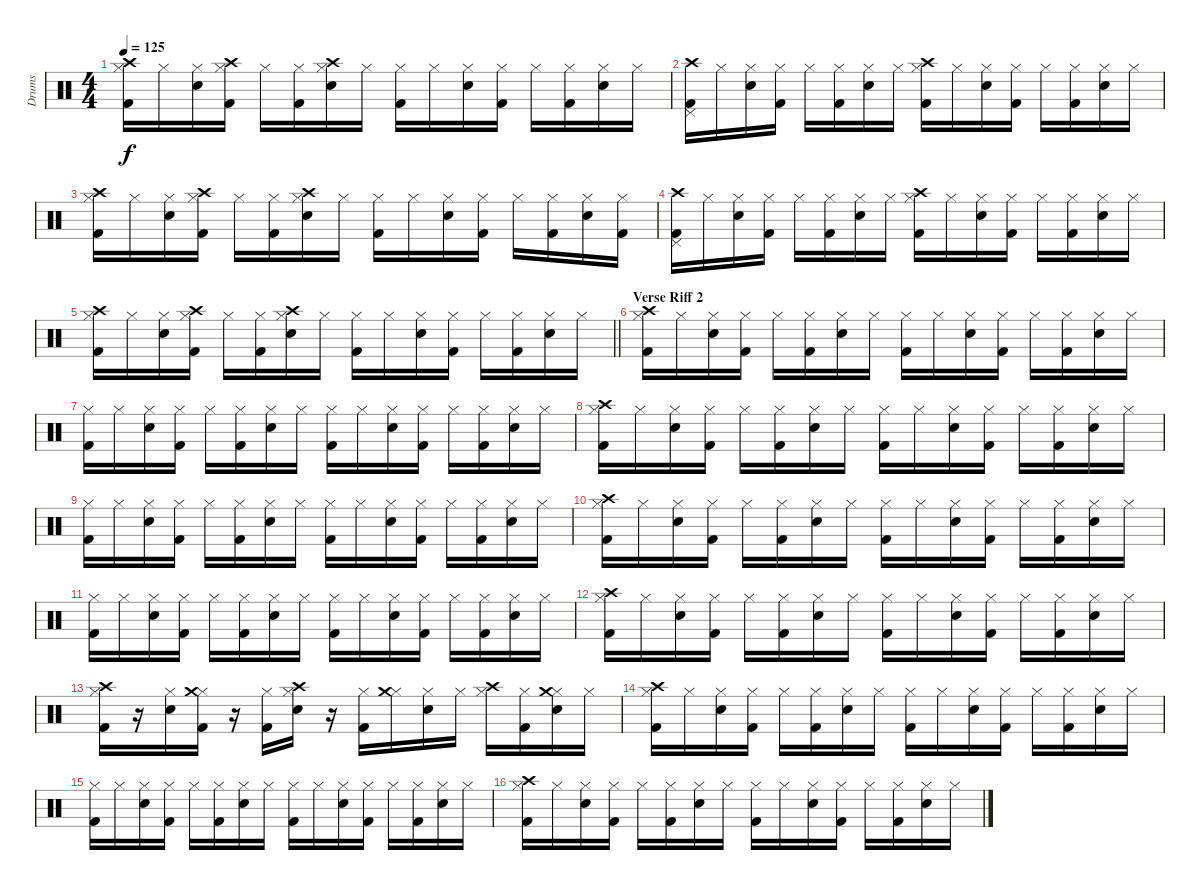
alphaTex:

\track ("Drums" "Drums") {instrument percussion}
\staff {score}
\articulation defaults
\ts (4 4)
\tempo 125
\clef neutral
\ks c
("Kick (hit) 2" "Hi-Hat (closed)" "Crash high (hit)").16{dy f} "Hi-Hat (closed)".16 ("Snare (hit) 2" "Hi-Hat (closed)").16 ("Kick (hit) 2" "Hi-Hat (closed)" "Crash high (hit)").16 "Hi-Hat (closed)".16 ("Kick (hit) 2" "Hi-Hat (closed)").16 ("Snare (hit) 2" "Hi-Hat (closed)" "Crash high (hit)").16 "Hi-Hat (closed)".16 ("Kick (hit) 2" "Hi-Hat (closed)").16 "Hi-Hat (closed)".16 ("Snare (hit) 2" "Hi-Hat (closed)").16 ("Kick (hit) 2" "Hi-Hat (closed)").16 "Hi-Hat (closed)".16 ("Kick (hit) 2" "Hi-Hat (closed)").16 ("Snare (hit) 2" "Hi-Hat (closed)").16 "Hi-Hat (closed)".16 |
("Kick (hit) 2" "Pedal Hi-Hat (hit)" "Crash high (hit)").16 "Hi-Hat (closed)".16 ("Snare (hit) 2" "Hi-Hat (closed)").16 ("Kick (hit) 2" "Hi-Hat (closed)").16 "Hi-Hat (closed)".16 ("Kick (hit) 2" "Hi-Hat (closed)").16 ("Snare (hit) 2" "Hi-Hat (closed)").16 "Hi-Hat (closed)".16 ("Kick (hit) 2" "Hi-Hat (closed)" "Crash high (hit)").16 "Hi-Hat (closed)".16 ("Snare (hit) 2" "Hi-Hat (closed)").16 ("Kick (hit) 2" "Hi-Hat (closed)").16 "Hi-Hat (closed)".16 ("Kick (hit) 2" "Hi-Hat (closed)").16 ("Snare (hit) 2" "Hi-Hat (closed)").16 "Hi-Hat (closed)".16 |
("Kick (hit) 2" "Hi-Hat (closed)" "Crash high (hit)").16 "Hi-Hat (closed)".16 ("Snare (hit) 2" "Hi-Hat (closed)").16 ("Kick (hit) 2" "Hi-Hat (closed)" "Crash high (hit)").16 "Hi-Hat (closed)".16 ("Kick (hit) 2" "Hi-Hat (closed)").16 ("Snare (hit) 2" "Hi-Hat (closed)" "Crash high (hit)").16 "Hi-Hat (closed)".16 ("Kick (hit) 2" "Hi-Hat (closed)").16 "Hi-Hat (closed)".16 ("Snare (hit) 2" "Hi-Hat (closed)").16 ("Kick (hit) 2" "Hi-Hat (closed)").16 "Hi-Hat (closed)".16 ("Kick (hit) 2" "Hi-Hat (closed)").16 ("Snare (hit) 2" "Hi-Hat (closed)").16 ("Kick (hit) 2" "Hi-Hat (closed)").16 |
("Kick (hit) 2" "Pedal Hi-Hat (hit)" "Crash high (hit)").16 "Hi-Hat (closed)".16 ("Snare (hit) 2" "Hi-Hat (closed)").16 ("Kick (hit) 2" "Hi-Hat (closed)").16 "Hi-Hat (closed)".16 ("Kick (hit) 2" "Hi-Hat (closed)").16 ("Snare (hit) 2" "Hi-Hat (closed)").16 "Hi-Hat (closed)".16 ("Kick (hit) 2" "Hi-Hat (closed)" "Crash high (hit)").16 "Hi-Hat (closed)".16 ("Snare (hit) 2" "Hi-Hat (closed)").16 ("Kick (hit) 2" "Hi-Hat (closed)").16 "Hi-Hat (closed)".16 ("Kick (hit) 2" "Hi-Hat (closed)").16 ("Snare (hit) 2" "Hi-Hat (closed)").16 "Hi-Hat (closed)".16 |
\barLineRight lightlight
("Kick (hit) 2" "Hi-Hat (closed)" "Crash high (hit)").16 "Hi-Hat (closed)".16 ("Snare (hit) 2" "Hi-Hat (closed)").16 ("Kick (hit) 2" "Hi-Hat (closed)" "Crash high (hit)").16 "Hi-Hat (closed)".16 ("Kick (hit) 2" "Hi-Hat (closed)").16 ("Snare (hit) 2" "Hi-Hat (closed)" "Crash high (hit)").16 "Hi-Hat (closed)".16 ("Kick (hit) 2" "Hi-Hat (closed)").16 "Hi-Hat (closed)".16 ("Snare (hit) 2" "Hi-Hat (closed)").16 ("Kick (hit) 2" "Hi-Hat (closed)").16 "Hi-Hat (closed)".16 ("Kick (hit) 2" "Hi-Hat (closed)").16 ("Snare (hit) 2" "Hi-Hat (closed)").16 "Hi-Hat (closed)".16 |
\section ("" "Verse Riff 2")
("Kick (hit) 2" "Hi-Hat (closed)" "Crash high (hit)").16 "Hi-Hat (closed)".16 ("Snare (hit) 2" "Hi-Hat (closed)").16 ("Kick (hit) 2" "Hi-Hat (closed)").16 "Hi-Hat (closed)".16 ("Kick (hit) 2" "Hi-Hat (closed)").16 ("Snare (hit) 2" "Hi-Hat (closed)").16 "Hi-Hat (closed)".16 ("Kick (hit) 2" "Hi-Hat (closed)").16 "Hi-Hat (closed)".16 ("Snare (hit) 2" "Hi-Hat (closed)").16 ("Kick (hit) 2" "Hi-Hat (closed)").16 "Hi-Hat (closed)".16 ("Kick (hit) 2" "Hi-Hat (closed)").16 ("Snare (hit) 2" "Hi-Hat (closed)").16 "Hi-Hat (closed)".16 |
("Kick (hit) 2" "Hi-Hat (closed)").16 "Hi-Hat (closed)".16 ("Snare (hit) 2" "Hi-Hat (closed)").16 ("Kick (hit) 2" "Hi-Hat (closed)").16 "Hi-Hat (closed)".16 ("Kick (hit) 2" "Hi-Hat (closed)").16 ("Snare (hit) 2" "Hi-Hat (closed)").16 "Hi-Hat (closed)".16 ("Kick (hit) 2" "Hi-Hat (closed)").16 "Hi-Hat (closed)".16 ("Snare (hit) 2" "Hi-Hat (closed)").16 ("Kick (hit) 2" "Hi-Hat (closed)").16 "Hi-Hat (closed)".16 ("Kick (hit) 2" "Hi-Hat (closed)").16 ("Snare (hit) 2" "Hi-Hat (closed)").16 "Hi-Hat (closed)".16 |
("Kick (hit) 2" "Hi-Hat (closed)" "Crash high (hit)").16 "Hi-Hat (closed)".16 ("Snare (hit) 2" "Hi-Hat (closed)").16 ("Kick (hit) 2" "Hi-Hat (closed)").16 "Hi-Hat (closed)".16 ("Kick (hit) 2" "Hi-Hat (closed)").16 ("Snare (hit) 2" "Hi-Hat (closed)").16 "Hi-Hat (closed)".16 ("Kick (hit) 2" "Hi-Hat (closed)").16 "Hi-Hat (closed)".16 ("Snare (hit) 2" "Hi-Hat (closed)").16 ("Kick (hit) 2" "Hi-Hat (closed)").16 "Hi-Hat (closed)".16 ("Kick (hit) 2" "Hi-Hat (closed)").16 ("Snare (hit) 2" "Hi-Hat (closed)").16 "Hi-Hat (closed)".16 |
("Kick (hit) 2" "Hi-Hat (closed)").16 "Hi-Hat (closed)".16 ("Snare (hit) 2" "Hi-Hat (closed)").16 ("Kick (hit) 2" "Hi-Hat (closed)").16 "Hi-Hat (closed)".16 ("Kick (hit) 2" "Hi-Hat (closed)").16 ("Snare (hit) 2" "Hi-Hat (closed)").16 "Hi-Hat (closed)".16 ("Kick (hit) 2" "Hi-Hat (closed)").16 "Hi-Hat (closed)".16 ("Snare (hit) 2" "Hi-Hat (closed)").16 ("Kick (hit) 2" "Hi-Hat (closed)").16 "Hi-Hat (closed)".16 ("Kick (hit) 2" "Hi-Hat (closed)").16 ("Snare (hit) 2" "Hi-Hat (closed)").16 "Hi-Hat (closed)".16 |
("Kick (hit) 2" "Hi-Hat (closed)" "Crash high (hit)").16 "Hi-Hat (closed)".16 ("Snare (hit) 2" "Hi-Hat (closed)").16 ("Kick (hit) 2" "Hi-Hat (closed)").16 "Hi-Hat (closed)".16 ("Kick (hit) 2" "Hi-Hat (closed)").16 ("Snare (hit) 2" "Hi-Hat (closed)").16 "Hi-Hat (closed)".16 ("Kick (hit) 2" "Hi-Hat (closed)").16 "Hi-Hat (closed)".16 ("Snare (hit) 2" "Hi-Hat (closed)").16 ("Kick (hit) 2" "Hi-Hat (closed)").16 "Hi-Hat (closed)".16 ("Kick (hit) 2" "Hi-Hat (closed)").16 ("Snare (hit) 2" "Hi-Hat (closed)").16 "Hi-Hat (closed)".16 |
("Kick (hit) 2" "Hi-Hat (closed)").16 "Hi-Hat (closed)".16 ("Snare (hit) 2" "Hi-Hat (closed)").16 ("Kick (hit) 2" "Hi-Hat (closed)").16 "Hi-Hat (closed)".16 ("Kick (hit) 2" "Hi-Hat (closed)").16 ("Snare (hit) 2" "Hi-Hat (closed)").16 "Hi-Hat (closed)".16 ("Kick (hit) 2" "Hi-Hat (closed)").16 "Hi-Hat (closed)".16 ("Snare (hit) 2" "Hi-Hat (closed)").16 ("Kick (hit) 2" "Hi-Hat (closed)").16 "Hi-Hat (closed)".16 ("Kick (hit) 2" "Hi-Hat (closed)").16 ("Snare (hit) 2" "Hi-Hat (closed)").16 "Hi-Hat (closed)".16 |
("Kick (hit) 2" "Hi-Hat (closed)" "Crash high (hit)").16 "Hi-Hat (closed)".16 ("Snare (hit) 2" "Hi-Hat (closed)").16 ("Kick (hit) 2" "Hi-Hat (closed)").16 "Hi-Hat (closed)".16 ("Kick (hit) 2" "Hi-Hat (closed)").16 ("Snare (hit) 2" "Hi-Hat (closed)").16 "Hi-Hat (closed)".16 ("Kick (hit) 2" "Hi-Hat (closed)").16 "Hi-Hat (closed)".16 ("Snare (hit) 2" "Hi-Hat (closed)").16 ("Kick (hit) 2" "Hi-Hat (closed)").16 "Hi-Hat (closed)".16 ("Kick (hit) 2" "Hi-Hat (closed)").16 ("Snare (hit) 2" "Hi-Hat (closed)").16 "Hi-Hat (closed)".16 |
("Kick (hit) 2" "Hi-Hat (closed)" "Crash high (hit)").16 r.16 ("Snare (hit) 2" "Hi-Hat (closed)").16 ("Kick (hit) 2" "Hi-Hat (closed)" "Crash medium (hit)").16 r.16 ("Kick (hit) 2" "Hi-Hat (closed)").16 ("Snare (hit) 2" "Hi-Hat (closed)" "Crash high (hit)").16 r.16 ("Kick (hit) 2" "Hi-Hat (closed)").16 ("Hi-Hat (closed)" "Crash medium (hit)").16 ("Snare (hit) 2" "Hi-Hat (closed)").16 "Hi-Hat (closed)".16 ("Hi-Hat (closed)" "Crash high (hit)").16 ("Kick (hit) 2" "Hi-Hat (closed)").16 ("Snare (hit) 2" "Hi-Hat (closed)" "Crash medium (hit)").16 "Hi-Hat (closed)".16 |
("Kick (hit) 2" "Hi-Hat (closed)" "Crash high (hit)").16 "Hi-Hat (closed)".16 ("Snare (hit) 2" "Hi-Hat (closed)").16 ("Kick (hit) 2" "Hi-Hat (closed)").16 "Hi-Hat (closed)".16 ("Kick (hit) 2" "Hi-Hat (closed)").16 ("Snare (hit) 2" "Hi-Hat (closed)").16 "Hi-Hat (closed)".16 ("Kick (hit) 2" "Hi-Hat (closed)").16 "Hi-Hat (closed)".16 ("Snare (hit) 2" "Hi-Hat (closed)").16 ("Kick (hit) 2" "Hi-Hat (closed)").16 "Hi-Hat (closed)".16 ("Kick (hit) 2" "Hi-Hat (closed)").16 ("Snare (hit) 2" "Hi-Hat (closed)").16 "Hi-Hat (closed)".16 |
("Kick (hit) 2" "Hi-Hat (closed)").16 "Hi-Hat (closed)".16 ("Snare (hit) 2" "Hi-Hat (closed)").16 ("Kick (hit) 2" "Hi-Hat (closed)").16 "Hi-Hat (closed)".16 ("Kick (hit) 2" "Hi-Hat (closed)").16 ("Snare (hit) 2" "Hi-Hat (closed)").16 "Hi-Hat (closed)".16 ("Kick (hit) 2" "Hi-Hat (closed)").16 "Hi-Hat (closed)".16 ("Snare (hit) 2" "Hi-Hat (closed)").16 ("Kick (hit) 2" "Hi-Hat (closed)").16 "Hi-Hat (closed)".16 ("Kick (hit) 2" "Hi-Hat (closed)").16 ("Snare (hit) 2" "Hi-Hat (closed)").16 "Hi-Hat (closed)".16 |
("Kick (hit) 2" "Hi-Hat (closed)" "Crash high (hit)").16 "Hi-Hat (closed)".16 ("Snare (hit) 2" "Hi-Hat (closed)").16 ("Kick (hit) 2" "Hi-Hat (closed)").16 "Hi-Hat (closed)".16 ("Kick (hit) 2" "Hi-Hat (closed)").16 ("Snare (hit) 2" "Hi-Hat (closed)").16 "Hi-Hat (closed)".16 ("Kick (hit) 2" "Hi-Hat (closed)").16 "Hi-Hat (closed)".16 ("Snare (hit) 2" "Hi-Hat (closed)").16 ("Kick (hit) 2" "Hi-Hat (closed)").16 "Hi-Hat (closed)".16 ("Kick (hit) 2" "Hi-Hat (closed)").16 ("Snare (hit) 2" "Hi-Hat (closed)").16 "Hi-Hat (closed)".16
